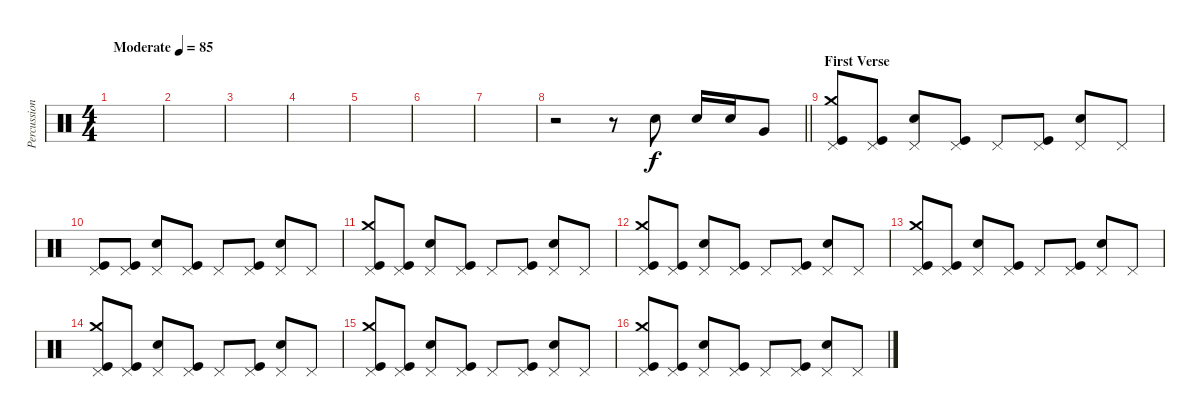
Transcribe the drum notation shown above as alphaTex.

\track ("Percussion" "Percussion") {instrument percussion}
\staff {score}
\articulation defaults
\ts (4 4)
\tempo (85 "Moderate")
\clef neutral
\ks c
|
|
|
|
|
|
|
\barLineRight lightlight
r.2 r.8 "Snare (hit) 2".8 "Snare (hit) 2".16 "Snare (hit) 2".16 "Very Low Tom (hit)".8 |
\section ("" "First Verse")
("Pedal Hi-Hat (hit)" "Crash medium (hit)" "Kick (hit)").8 ("Pedal Hi-Hat (hit)" "Kick (hit)").8 ("Pedal Hi-Hat (hit)" "Snare (hit) 2").8 ("Pedal Hi-Hat (hit)" "Kick (hit)").8 "Pedal Hi-Hat (hit)".8 ("Pedal Hi-Hat (hit)" "Kick (hit)").8 ("Pedal Hi-Hat (hit)" "Snare (hit) 2").8 "Pedal Hi-Hat (hit)".8 |
("Pedal Hi-Hat (hit)" "Kick (hit)").8 ("Pedal Hi-Hat (hit)" "Kick (hit)").8 ("Pedal Hi-Hat (hit)" "Snare (hit) 2").8 ("Pedal Hi-Hat (hit)" "Kick (hit)").8 "Pedal Hi-Hat (hit)".8 ("Pedal Hi-Hat (hit)" "Kick (hit)").8 ("Pedal Hi-Hat (hit)" "Snare (hit) 2").8 "Pedal Hi-Hat (hit)".8 |
("Pedal Hi-Hat (hit)" "Crash medium (hit)" "Kick (hit)").8 ("Pedal Hi-Hat (hit)" "Kick (hit)").8 ("Pedal Hi-Hat (hit)" "Snare (hit) 2").8 ("Pedal Hi-Hat (hit)" "Kick (hit)").8 "Pedal Hi-Hat (hit)".8 ("Pedal Hi-Hat (hit)" "Kick (hit)").8 ("Pedal Hi-Hat (hit)" "Snare (hit) 2").8 "Pedal Hi-Hat (hit)".8 |
("Pedal Hi-Hat (hit)" "Crash medium (hit)" "Kick (hit)").8 ("Pedal Hi-Hat (hit)" "Kick (hit)").8 ("Pedal Hi-Hat (hit)" "Snare (hit) 2").8 ("Pedal Hi-Hat (hit)" "Kick (hit)").8 "Pedal Hi-Hat (hit)".8 ("Pedal Hi-Hat (hit)" "Kick (hit)").8 ("Pedal Hi-Hat (hit)" "Snare (hit) 2").8 "Pedal Hi-Hat (hit)".8 |
("Pedal Hi-Hat (hit)" "Crash medium (hit)" "Kick (hit)").8 ("Pedal Hi-Hat (hit)" "Kick (hit)").8 ("Pedal Hi-Hat (hit)" "Snare (hit) 2").8 ("Pedal Hi-Hat (hit)" "Kick (hit)").8 "Pedal Hi-Hat (hit)".8 ("Pedal Hi-Hat (hit)" "Kick (hit)").8 ("Pedal Hi-Hat (hit)" "Snare (hit) 2").8 "Pedal Hi-Hat (hit)".8 |
("Pedal Hi-Hat (hit)" "Crash medium (hit)" "Kick (hit)").8 ("Pedal Hi-Hat (hit)" "Kick (hit)").8 ("Pedal Hi-Hat (hit)" "Snare (hit) 2").8 ("Pedal Hi-Hat (hit)" "Kick (hit)").8 "Pedal Hi-Hat (hit)".8 ("Pedal Hi-Hat (hit)" "Kick (hit)").8 ("Pedal Hi-Hat (hit)" "Snare (hit) 2").8 "Pedal Hi-Hat (hit)".8 |
("Pedal Hi-Hat (hit)" "Crash medium (hit)" "Kick (hit)").8 ("Pedal Hi-Hat (hit)" "Kick (hit)").8 ("Pedal Hi-Hat (hit)" "Snare (hit) 2").8 ("Pedal Hi-Hat (hit)" "Kick (hit)").8 "Pedal Hi-Hat (hit)".8 ("Pedal Hi-Hat (hit)" "Kick (hit)").8 ("Pedal Hi-Hat (hit)" "Snare (hit) 2").8 "Pedal Hi-Hat (hit)".8 |
("Pedal Hi-Hat (hit)" "Crash medium (hit)" "Kick (hit)").8 ("Pedal Hi-Hat (hit)" "Kick (hit)").8 ("Pedal Hi-Hat (hit)" "Snare (hit) 2").8 ("Pedal Hi-Hat (hit)" "Kick (hit)").8 "Pedal Hi-Hat (hit)".8 ("Pedal Hi-Hat (hit)" "Kick (hit)").8 ("Pedal Hi-Hat (hit)" "Snare (hit) 2").8 "Pedal Hi-Hat (hit)".8
